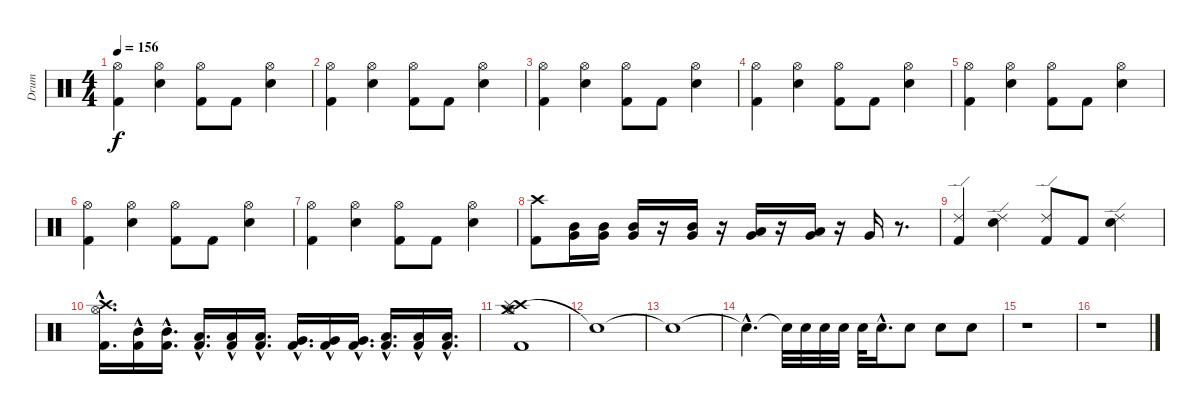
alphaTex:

\track (" Drum" " Drum") {instrument percussion}
\staff {score}
\articulation defaults
\ts (4 4)
\tempo 156
\clef neutral
\ks c
("Hi-Hat (open)" "Kick (hit) 2").4{dy f} ("Hi-Hat (open)" "Snare (hit) 2").4 ("Hi-Hat (open)" "Kick (hit) 2").8 "Kick (hit) 2".8 ("Hi-Hat (open)" "Snare (hit) 2").4 |
("Hi-Hat (open)" "Kick (hit) 2").4 ("Hi-Hat (open)" "Snare (hit) 2").4 ("Hi-Hat (open)" "Kick (hit) 2").8 "Kick (hit) 2".8 ("Hi-Hat (open)" "Snare (hit) 2").4 |
("Hi-Hat (open)" "Kick (hit) 2").4 ("Hi-Hat (open)" "Snare (hit) 2").4 ("Hi-Hat (open)" "Kick (hit) 2").8 "Kick (hit) 2".8 ("Hi-Hat (open)" "Snare (hit) 2").4 |
("Hi-Hat (open)" "Kick (hit) 2").4 ("Hi-Hat (open)" "Snare (hit) 2").4 ("Hi-Hat (open)" "Kick (hit) 2").8 "Kick (hit) 2".8 ("Hi-Hat (open)" "Snare (hit) 2").4 |
("Hi-Hat (open)" "Kick (hit) 2").4 ("Hi-Hat (open)" "Snare (hit) 2").4 ("Hi-Hat (open)" "Kick (hit) 2").8 "Kick (hit) 2".8 ("Hi-Hat (open)" "Snare (hit) 2").4 |
("Hi-Hat (open)" "Kick (hit) 2").4 ("Hi-Hat (open)" "Snare (hit) 2").4 ("Hi-Hat (open)" "Kick (hit) 2").8 "Kick (hit) 2".8 ("Hi-Hat (open)" "Snare (hit) 2").4 |
("Hi-Hat (open)" "Kick (hit) 2").4 ("Hi-Hat (open)" "Snare (hit) 2").4 ("Hi-Hat (open)" "Kick (hit) 2").8 "Kick (hit) 2".8 ("Hi-Hat (open)" "Snare (hit) 2").4 |
("Crash high (hit)" "Kick (hit) 2").8 ("Very Low Tom (hit)" "Mid Tom (hit)").16 ("Very Low Tom (hit)" "Mid Tom (hit)").16 ("Very Low Tom (hit)" "Mid Tom (hit)").16 r.16 ("Very Low Tom (hit)" "Mid Tom (hit)").16 r.16 ("Very Low Tom (hit)" "Low Tom (hit)").16 r.16 ("Very Low Tom (hit)" "Low Tom (hit)").16 r.16 "Very Low Tom (hit)".16 r.8{d} |
("Ride (edge) 2" "Kick (hit) 2").4 ("Ride (edge) 2" "Snare (hit) 2").4 ("Ride (edge) 2" "Kick (hit) 2").8 "Kick (hit) 2".8 ("Ride (edge) 2" "Snare (hit) 2").4 |
("Hi-Hat (open)"{hac} "Crash high (hit)"{hac} "Kick (hit) 2"{hac}).16{d} ("Mid Tom (hit)"{hac} "Kick (hit) 2"{hac}).16 ("Mid Tom (hit)"{hac} "Kick (hit) 2"{hac}).16{d} ("Low Tom (hit)"{hac} "Kick (hit) 2"{hac}).16{d} ("Low Tom (hit)"{hac} "Kick (hit) 2"{hac}).16 ("Low Tom (hit)"{hac} "Kick (hit) 2"{hac}).16{d} ("Very Low Tom (hit)"{hac} "Kick (hit) 2"{hac}).16{d} ("Very Low Tom (hit)"{hac} "Kick (hit) 2"{hac}).16 ("Very Low Tom (hit)"{hac} "Kick (hit) 2"{hac}).16{d} ("Low Floor Tom (hit)"{hac} "Kick (hit) 2"{hac}).16{d} ("Low Floor Tom (hit)"{hac} "Kick (hit) 2"{hac}).16 ("Low Floor Tom (hit)"{hac} "Kick (hit) 2"{hac}).16{d} |
("Crash high (hit)" "Crash medium (hit)" "Splash (hit)" "Hi-Hat (open)" "Kick (hit) 2").1 |
"Snare (hit)"{t}.1 |
"Snare (hit)"{t}.1 |
"Snare (hit)"{hac t}.4{d} "Snare (hit)"{t}.32 "Snare (hit) 2".32{volume 4} "Snare (hit) 2".32{volume 4} "Snare (hit) 2".32{volume 5} "Snare (hit) 2".32{volume 6} "Snare (hit) 2"{hac}.16{d volume 7} "Snare (hit) 2".8{volume 9} "Snare (hit) 2".8{volume 12} "Snare (hit) 2".8 |
r.1 |
r.1
